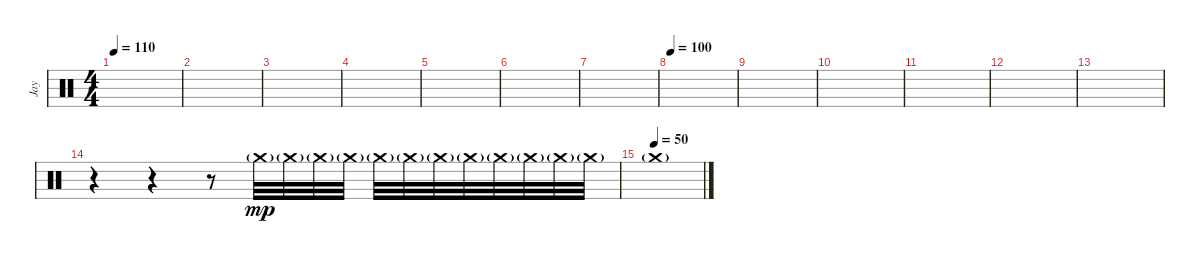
\track ("Jay" "Jay") {instrument percussion}
\staff {score}
\articulation defaults
\ts (4 4)
\tempo 110
\clef neutral
\ks c
|
|
|
|
|
|
|
\tempo 100
|
|
|
|
|
|
r.4 r.4 r.8 "Crash medium (hit)"{g}.32{dy mp volume 4} "Crash medium (hit)"{g}.32{volume 5} "Crash medium (hit)"{g}.32 "Crash medium (hit)"{g}.32{volume 6} "Crash medium (hit)"{g}.32 "Crash medium (hit)"{g}.32{volume 7} "Crash medium (hit)"{g}.32{volume 9} "Crash medium (hit)"{g}.32{volume 9} "Crash medium (hit)"{g}.32{volume 10} "Crash medium (hit)"{g}.32{volume 10} "Crash medium (hit)"{g}.32{volume 11} "Crash medium (hit)"{g}.32{volume 12} |
\tempo (50)
"Crash medium (hit)"{g}.1
